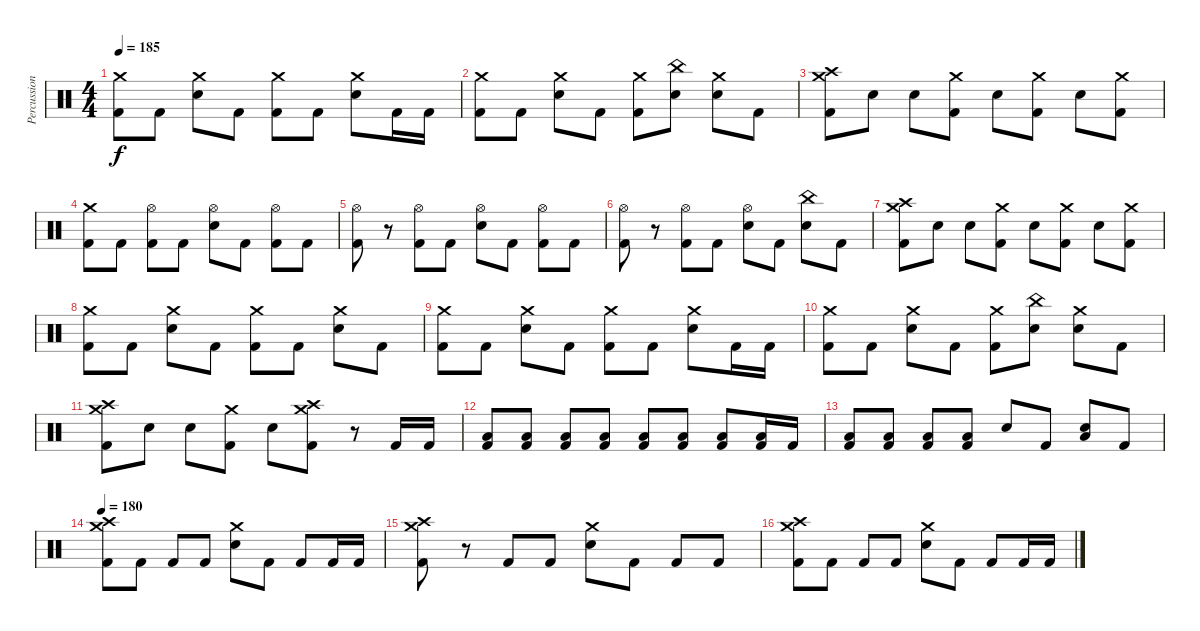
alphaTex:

\track ("Percussion" "Percussion") {instrument percussion}
\staff {score}
\articulation defaults
\ts (4 4)
\tempo 185
\clef neutral
\ks c
("Kick (hit) 2" "Crash medium (hit)").8{dy f} "Kick (hit) 2".8 ("Electric Snare (hit)" "Crash medium (hit)").8 "Kick (hit) 2".8 ("Kick (hit) 2" "Crash medium (hit)").8 "Kick (hit) 2".8 ("Electric Snare (hit)" "Crash medium (hit)").8 "Kick (hit) 2".16 "Kick (hit) 2".16 |
("Kick (hit) 2" "Crash medium (hit)").8 "Kick (hit) 2".8 ("Electric Snare (hit)" "Crash medium (hit)").8 "Kick (hit) 2".8 ("Kick (hit) 2" "Crash medium (hit)").8 ("Electric Snare (hit)" "China (hit)").8 ("Electric Snare (hit)" "Crash medium (hit)").8 "Kick (hit) 2".8 |
("Kick (hit) 2" "Crash medium (hit)" "Crash high (hit)").8 "Electric Snare (hit)".8 "Electric Snare (hit)".8 ("Kick (hit) 2" "Crash medium (hit)").8 "Electric Snare (hit)".8 ("Kick (hit) 2" "Crash medium (hit)").8 "Electric Snare (hit)".8 ("Kick (hit) 2" "Crash medium (hit)").8 |
("Kick (hit) 2" "Crash medium (hit)").8 "Kick (hit) 2".8 ("Kick (hit) 2" "Hi-Hat (open)").8 "Kick (hit) 2".8 ("Electric Snare (hit)" "Hi-Hat (open)").8 "Kick (hit) 2".8 ("Kick (hit) 2" "Hi-Hat (open)").8 "Kick (hit) 2".8 |
("Kick (hit) 2" "Hi-Hat (open)").8 r.8 ("Kick (hit) 2" "Hi-Hat (open)").8 "Kick (hit) 2".8 ("Electric Snare (hit)" "Hi-Hat (open)").8 "Kick (hit) 2".8 ("Kick (hit) 2" "Hi-Hat (open)").8 "Kick (hit) 2".8 |
("Kick (hit) 2" "Hi-Hat (open)").8 r.8 ("Kick (hit) 2" "Hi-Hat (open)").8 "Kick (hit) 2".8 ("Electric Snare (hit)" "Hi-Hat (open)").8 "Kick (hit) 2".8 ("Electric Snare (hit)" "China (hit)").8 "Kick (hit) 2".8 |
("Kick (hit) 2" "Crash medium (hit)" "Crash high (hit)").8 "Electric Snare (hit)".8 "Electric Snare (hit)".8 ("Kick (hit) 2" "Crash medium (hit)").8 "Electric Snare (hit)".8 ("Kick (hit) 2" "Crash medium (hit)").8 "Electric Snare (hit)".8 ("Kick (hit) 2" "Crash medium (hit)").8 |
("Kick (hit) 2" "Crash medium (hit)").8 "Kick (hit) 2".8 ("Electric Snare (hit)" "Crash medium (hit)").8 "Kick (hit) 2".8 ("Kick (hit) 2" "Crash medium (hit)").8 "Kick (hit) 2".8 ("Electric Snare (hit)" "Crash medium (hit)").8 "Kick (hit) 2".8 |
("Kick (hit) 2" "Crash medium (hit)").8 "Kick (hit) 2".8 ("Electric Snare (hit)" "Crash medium (hit)").8 "Kick (hit) 2".8 ("Kick (hit) 2" "Crash medium (hit)").8 "Kick (hit) 2".8 ("Electric Snare (hit)" "Crash medium (hit)").8 "Kick (hit) 2".16 "Kick (hit) 2".16 |
("Kick (hit) 2" "Crash medium (hit)").8 "Kick (hit) 2".8 ("Electric Snare (hit)" "Crash medium (hit)").8 "Kick (hit) 2".8 ("Kick (hit) 2" "Crash medium (hit)").8 ("Electric Snare (hit)" "China (hit)").8 ("Electric Snare (hit)" "Crash medium (hit)").8 "Kick (hit) 2".8 |
("Kick (hit) 2" "Crash medium (hit)" "Crash high (hit)").8 "Electric Snare (hit)".8 "Electric Snare (hit)".8 ("Kick (hit) 2" "Crash medium (hit)").8 "Electric Snare (hit)".8 ("Kick (hit) 2" "Crash medium (hit)" "Crash high (hit)").8 r.8 "Kick (hit) 2".16 "Kick (hit) 2".16 |
("Kick (hit) 2" "Low Tom (hit)").8 ("Kick (hit) 2" "Low Tom (hit)").8 ("Kick (hit) 2" "Low Tom (hit)").8 ("Kick (hit) 2" "Low Tom (hit)").8 ("Kick (hit) 2" "Low Tom (hit)").8 ("Kick (hit) 2" "Low Tom (hit)").8 ("Kick (hit) 2" "Low Tom (hit)").8 ("Kick (hit) 2" "Low Tom (hit)").16 "Kick (hit) 2".16 |
("Kick (hit) 2" "Low Tom (hit)").8 ("Kick (hit) 2" "Low Tom (hit)").8 ("Kick (hit) 2" "Low Tom (hit)").8 ("Kick (hit) 2" "Low Tom (hit)").8 "Electric Snare (hit)".8 "Kick (hit) 2".8 ("Electric Snare (hit)" "Low Tom (hit)").8 "Kick (hit) 2".8 |
\tempo 180
("Kick (hit) 2" "Crash medium (hit)" "Crash high (hit)").8 "Kick (hit) 2".8 "Kick (hit) 2".8 "Kick (hit) 2".8 ("Electric Snare (hit)" "Crash medium (hit)").8 "Kick (hit) 2".8 "Kick (hit) 2".8 "Kick (hit) 2".16 "Kick (hit) 2".16 |
("Kick (hit) 2" "Crash medium (hit)" "Crash high (hit)").8 r.8 "Kick (hit) 2".8 "Kick (hit) 2".8 ("Electric Snare (hit)" "Crash medium (hit)").8 "Kick (hit) 2".8 "Kick (hit) 2".8 "Kick (hit) 2".8 |
("Kick (hit) 2" "Crash medium (hit)" "Crash high (hit)").8 "Kick (hit) 2".8 "Kick (hit) 2".8 "Kick (hit) 2".8 ("Electric Snare (hit)" "Crash medium (hit)").8 "Kick (hit) 2".8 "Kick (hit) 2".8 "Kick (hit) 2".16 "Kick (hit) 2".16
